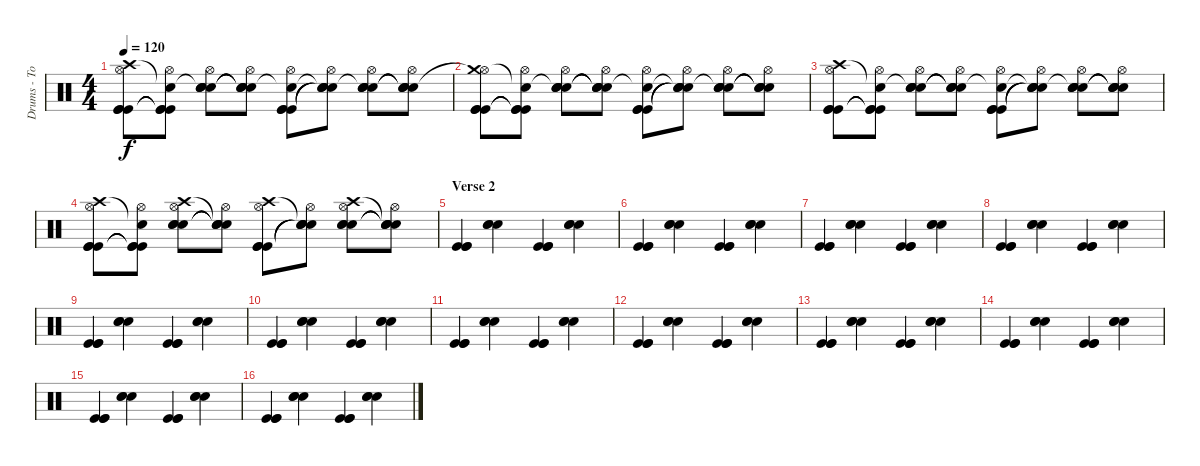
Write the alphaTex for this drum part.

\track ("Drums - Tom" "Drums - To") {instrument percussion}
\staff {score}
\articulation defaults
\ts (4 4)
\tempo 120
\clef neutral
\ks c
("Kick (hit)" "Kick (hit)" "Kick (hit)" "Hi-Hat (open)" "Crash high (hit)").8{dy f} ("Kick (hit)"{t} "Kick (hit)"{t} "Kick (hit)"{t} "Hi-Hat (open)" "Snare (hit)"{t}).8 ("Snare (hit) 2" "Snare (hit) 2" "Snare (hit) 2" "Hi-Hat (open)" "Snare (hit)"{t}).8 ("Snare (hit) 2"{t} "Snare (hit) 2"{t} "Snare (hit) 2"{t} "Hi-Hat (open)" "Snare (hit)"{t}).8 ("Kick (hit)" "Kick (hit)" "Kick (hit)" "Hi-Hat (open)" "Snare (hit)"{t}).8 ("Snare (hit)"{t} "Snare (hit)"{t} "Snare (hit)"{t} "Hi-Hat (open)" "Snare (hit)"{t}).8 ("Snare (hit) 2" "Snare (hit) 2" "Snare (hit) 2" "Hi-Hat (open)" "Snare (hit)"{t}).8 ("Snare (hit)"{t} "Snare (hit)"{t} "Snare (hit)"{t} "Hi-Hat (open)" "Snare (hit)"{t}).8 |
("Kick (hit)" "Kick (hit)" "Kick (hit)" "Hi-Hat (open)" "Crash medium (hit)"{t}).8 ("Kick (hit)"{t} "Kick (hit)"{t} "Kick (hit)"{t} "Hi-Hat (open)" "Snare (hit)"{t}).8 ("Snare (hit) 2" "Snare (hit) 2" "Snare (hit) 2" "Hi-Hat (open)" "Snare (hit)"{t}).8 ("Snare (hit) 2"{t} "Snare (hit) 2"{t} "Snare (hit) 2"{t} "Hi-Hat (open)" "Snare (hit)"{t}).8 ("Kick (hit)" "Kick (hit)" "Kick (hit)" "Hi-Hat (open)" "Snare (hit)"{t}).8 ("Snare (hit)"{t} "Snare (hit)"{t} "Snare (hit)"{t} "Hi-Hat (open)" "Snare (hit)"{t}).8 ("Snare (hit) 2" "Snare (hit) 2" "Snare (hit) 2" "Hi-Hat (open)" "Snare (hit)"{t}).8 ("Snare (hit)"{t} "Snare (hit)"{t} "Snare (hit)"{t} "Hi-Hat (open)" "Snare (hit)"{t}).8 |
("Kick (hit)" "Kick (hit)" "Kick (hit)" "Hi-Hat (open)" "Crash high (hit)").8 ("Kick (hit)"{t} "Kick (hit)"{t} "Kick (hit)"{t} "Hi-Hat (open)" "Snare (hit)"{t}).8 ("Snare (hit) 2" "Snare (hit) 2" "Snare (hit) 2" "Hi-Hat (open)" "Snare (hit)"{t}).8 ("Snare (hit) 2"{t} "Snare (hit) 2"{t} "Snare (hit) 2"{t} "Hi-Hat (open)" "Snare (hit)"{t}).8 ("Kick (hit)" "Kick (hit)" "Kick (hit)" "Hi-Hat (open)" "Snare (hit)"{t}).8 ("Snare (hit)"{t} "Snare (hit)"{t} "Snare (hit)"{t} "Hi-Hat (open)" "Snare (hit)"{t}).8 ("Snare (hit) 2" "Snare (hit) 2" "Snare (hit) 2" "Hi-Hat (open)" "Snare (hit)"{t}).8 ("Snare (hit)"{t} "Snare (hit)"{t} "Snare (hit)"{t} "Hi-Hat (open)" "Snare (hit)"{t}).8 |
("Kick (hit)" "Kick (hit)" "Kick (hit)" "Hi-Hat (open)" "Crash high (hit)").8 ("Kick (hit)"{t} "Kick (hit)"{t} "Kick (hit)"{t} "Hi-Hat (open)" "Snare (hit)"{t}).8 ("Snare (hit) 2" "Snare (hit) 2" "Snare (hit) 2" "Hi-Hat (open)" "Crash high (hit)").8 ("Snare (hit) 2"{t} "Snare (hit) 2"{t} "Snare (hit) 2"{t} "Hi-Hat (open)" "Snare (hit)"{t}).8 ("Kick (hit)" "Kick (hit)" "Kick (hit)" "Hi-Hat (open)" "Crash high (hit)").8 ("Snare (hit)"{t} "Snare (hit)"{t} "Snare (hit)"{t} "Hi-Hat (open)" "Snare (hit)"{t}).8 ("Snare (hit) 2" "Snare (hit) 2" "Snare (hit) 2" "Hi-Hat (open)" "Crash high (hit)").8 ("Snare (hit)"{t} "Snare (hit)"{t} "Snare (hit)"{t} "Hi-Hat (open)" "Snare (hit)"{t}).8 |
\section ("" "Verse 2")
("Kick (hit)" "Kick (hit)" "Kick (hit)").4 ("Snare (hit) 2" "Snare (hit) 2" "Snare (hit) 2").4 ("Kick (hit)" "Kick (hit)" "Kick (hit)").4 ("Snare (hit) 2" "Snare (hit) 2" "Snare (hit) 2").4 |
("Kick (hit)" "Kick (hit)" "Kick (hit)").4 ("Snare (hit) 2" "Snare (hit) 2" "Snare (hit) 2").4 ("Kick (hit)" "Kick (hit)" "Kick (hit)").4 ("Snare (hit) 2" "Snare (hit) 2" "Snare (hit) 2").4 |
("Kick (hit)" "Kick (hit)" "Kick (hit)").4 ("Snare (hit) 2" "Snare (hit) 2" "Snare (hit) 2").4 ("Kick (hit)" "Kick (hit)" "Kick (hit)").4 ("Snare (hit) 2" "Snare (hit) 2" "Snare (hit) 2").4 |
("Kick (hit)" "Kick (hit)" "Kick (hit)").4 ("Snare (hit) 2" "Snare (hit) 2" "Snare (hit) 2").4 ("Kick (hit)" "Kick (hit)" "Kick (hit)").4 ("Snare (hit) 2" "Snare (hit) 2" "Snare (hit) 2").4 |
("Kick (hit)" "Kick (hit)" "Kick (hit)").4 ("Snare (hit) 2" "Snare (hit) 2" "Snare (hit) 2").4 ("Kick (hit)" "Kick (hit)" "Kick (hit)").4 ("Snare (hit) 2" "Snare (hit) 2" "Snare (hit) 2").4 |
("Kick (hit)" "Kick (hit)" "Kick (hit)").4 ("Snare (hit) 2" "Snare (hit) 2" "Snare (hit) 2").4 ("Kick (hit)" "Kick (hit)" "Kick (hit)").4 ("Snare (hit) 2" "Snare (hit) 2" "Snare (hit) 2").4 |
("Kick (hit)" "Kick (hit)" "Kick (hit)").4 ("Snare (hit) 2" "Snare (hit) 2" "Snare (hit) 2").4 ("Kick (hit)" "Kick (hit)" "Kick (hit)").4 ("Snare (hit) 2" "Snare (hit) 2" "Snare (hit) 2").4 |
("Kick (hit)" "Kick (hit)" "Kick (hit)").4 ("Snare (hit) 2" "Snare (hit) 2" "Snare (hit) 2").4 ("Kick (hit)" "Kick (hit)" "Kick (hit)").4 ("Snare (hit) 2" "Snare (hit) 2" "Snare (hit) 2").4 |
("Kick (hit)" "Kick (hit)" "Kick (hit)").4 ("Snare (hit) 2" "Snare (hit) 2" "Snare (hit) 2").4 ("Kick (hit)" "Kick (hit)" "Kick (hit)").4 ("Snare (hit) 2" "Snare (hit) 2" "Snare (hit) 2").4 |
("Kick (hit)" "Kick (hit)" "Kick (hit)").4 ("Snare (hit) 2" "Snare (hit) 2" "Snare (hit) 2").4 ("Kick (hit)" "Kick (hit)" "Kick (hit)").4 ("Snare (hit) 2" "Snare (hit) 2" "Snare (hit) 2").4 |
("Kick (hit)" "Kick (hit)" "Kick (hit)").4 ("Snare (hit) 2" "Snare (hit) 2" "Snare (hit) 2").4 ("Kick (hit)" "Kick (hit)" "Kick (hit)").4 ("Snare (hit) 2" "Snare (hit) 2" "Snare (hit) 2").4 |
("Kick (hit)" "Kick (hit)" "Kick (hit)").4 ("Snare (hit) 2" "Snare (hit) 2" "Snare (hit) 2").4 ("Kick (hit)" "Kick (hit)" "Kick (hit)").4 ("Snare (hit) 2" "Snare (hit) 2" "Snare (hit) 2").4
